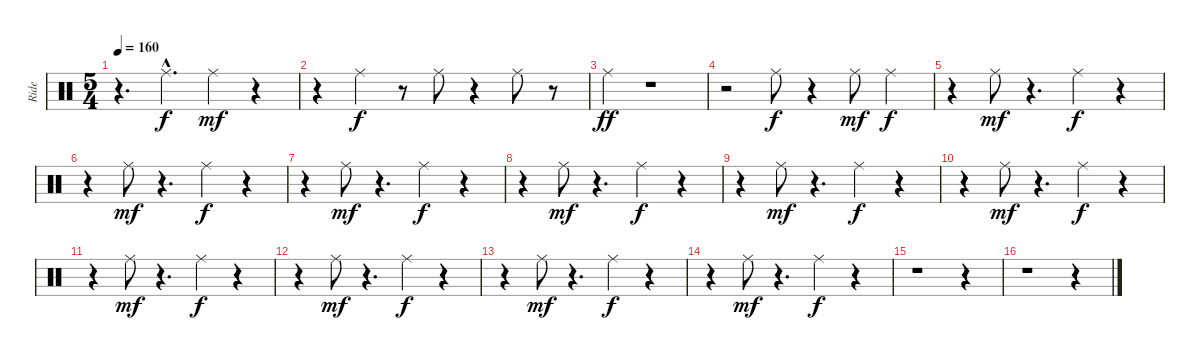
\track ("Ride" "Ride") {instrument percussion}
\staff {score}
\articulation defaults
\ts (5 4)
\tempo 160
\clef neutral
\ks c
r.4{d dy mf} "Ride (middle)"{hac}.4{d dy f} "Ride (middle)".4{dy mf} r.4 |
r.4 "Ride (middle)".4{dy f} r.8 "Ride (middle)".8 r.4 "Ride (middle)".8 r.8 |
"Ride (middle)".4{dy ff} r.1 |
r.2 "Ride (middle)".8{dy f} r.4 "Ride (middle)".8{dy mf} "Ride (middle)".4{dy f} |
r.4 "Ride (middle)".8{dy mf} r.4{d} "Ride (middle)".4{dy f} r.4 |
r.4 "Ride (middle)".8{dy mf} r.4{d} "Ride (middle)".4{dy f} r.4 |
r.4 "Ride (middle)".8{dy mf} r.4{d} "Ride (middle)".4{dy f} r.4 |
r.4 "Ride (middle)".8{dy mf} r.4{d} "Ride (middle)".4{dy f} r.4 |
r.4 "Ride (middle)".8{dy mf} r.4{d} "Ride (middle)".4{dy f} r.4 |
r.4 "Ride (middle)".8{dy mf} r.4{d} "Ride (middle)".4{dy f} r.4 |
r.4 "Ride (middle)".8{dy mf} r.4{d} "Ride (middle)".4{dy f} r.4 |
r.4 "Ride (middle)".8{dy mf} r.4{d} "Ride (middle)".4{dy f} r.4 |
r.4 "Ride (middle)".8{dy mf} r.4{d} "Ride (middle)".4{dy f} r.4 |
r.4 "Ride (middle)".8{dy mf} r.4{d} "Ride (middle)".4{dy f} r.4 |
r.1 r.4 |
r.1 r.4
